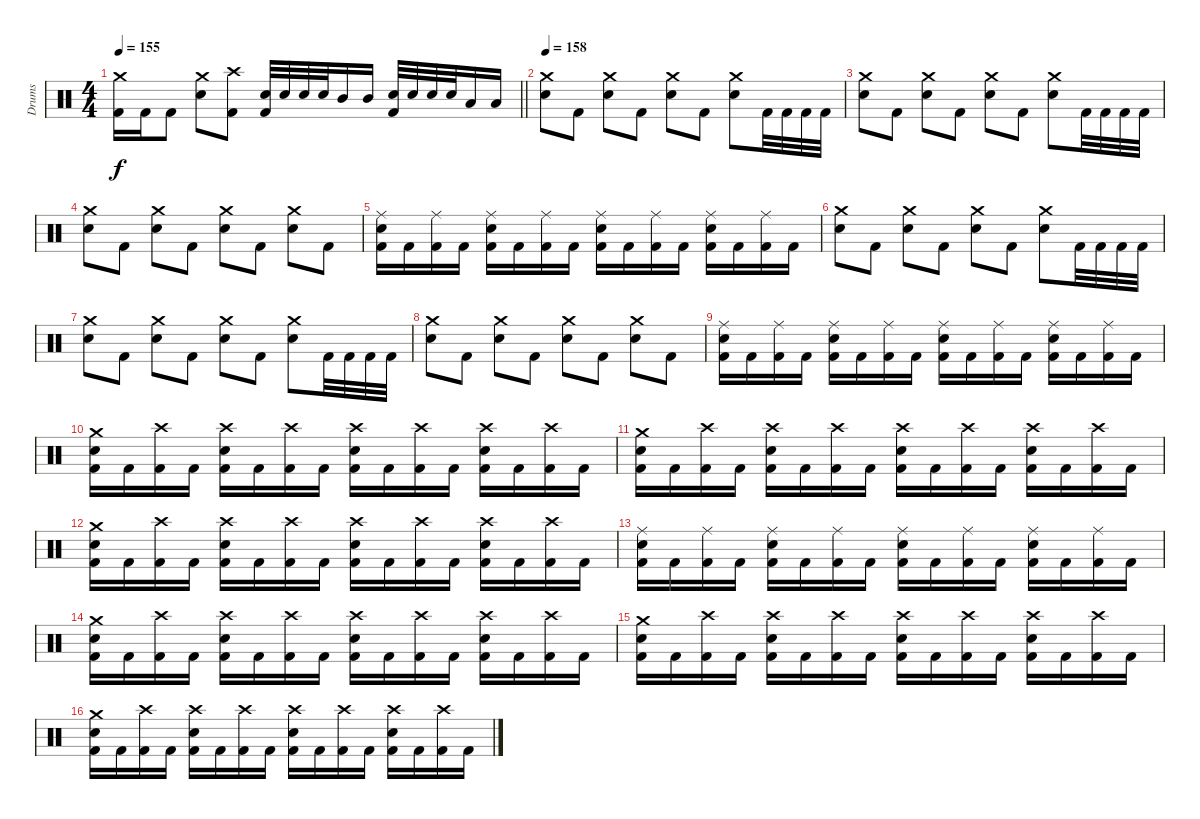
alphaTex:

\track ("Drums" "Drums") {instrument percussion}
\staff {score}
\articulation defaults
\ts (4 4)
\tempo 155
\clef neutral
\barLineRight lightlight
\ks c
("Crash medium (hit)" "Kick (hit) 2").16{dy f} "Kick (hit) 2".16 "Kick (hit) 2".8 ("Crash medium (hit)" "Snare (hit) 2").8 ("Crash high (hit)" "Kick (hit) 2").8 ("Snare (hit) 2" "Kick (hit) 2").32 "Snare (hit) 2".32 "Snare (hit) 2".32 "Snare (hit) 2".32 "Mid Tom (hit)".16 "Mid Tom (hit)".16 ("Snare (hit) 2" "Kick (hit) 2").32 "Snare (hit) 2".32 "Snare (hit) 2".32 "Snare (hit) 2".32 "Low Tom (hit)".16 "Low Tom (hit)".16 |
\section ("" "")
\tempo 158
("Crash medium (hit)" "Snare (hit) 2").8 "Kick (hit) 2".8 ("Crash medium (hit)" "Snare (hit) 2").8 "Kick (hit) 2".8 ("Crash medium (hit)" "Snare (hit) 2").8 "Kick (hit) 2".8 ("Crash medium (hit)" "Snare (hit) 2").8 "Kick (hit) 2".32 "Kick (hit) 2".32 "Kick (hit) 2".32 "Kick (hit) 2".32 |
("Crash medium (hit)" "Snare (hit) 2").8 "Kick (hit) 2".8 ("Crash medium (hit)" "Snare (hit) 2").8 "Kick (hit) 2".8 ("Crash medium (hit)" "Snare (hit) 2").8 "Kick (hit) 2".8 ("Crash medium (hit)" "Snare (hit) 2").8 "Kick (hit) 2".32 "Kick (hit) 2".32 "Kick (hit) 2".32 "Kick (hit) 2".32 |
("Crash medium (hit)" "Snare (hit) 2").8 "Kick (hit) 2".8 ("Crash medium (hit)" "Snare (hit) 2").8 "Kick (hit) 2".8 ("Crash medium (hit)" "Snare (hit) 2").8 "Kick (hit) 2".8 ("Crash medium (hit)" "Snare (hit) 2").8 "Kick (hit) 2".8 |
("Ride (middle)" "Snare (hit) 2" "Kick (hit) 2").16 "Kick (hit) 2".16 ("Ride (middle)" "Kick (hit) 2").16 "Kick (hit) 2".16 ("Ride (middle)" "Snare (hit) 2" "Kick (hit) 2").16 "Kick (hit) 2".16 ("Ride (middle)" "Kick (hit) 2").16 "Kick (hit) 2".16 ("Ride (middle)" "Snare (hit) 2" "Kick (hit) 2").16 "Kick (hit) 2".16 ("Ride (middle)" "Kick (hit) 2").16 "Kick (hit) 2".16 ("Ride (middle)" "Snare (hit) 2" "Kick (hit) 2").16 "Kick (hit) 2".16 ("Ride (middle)" "Kick (hit) 2").16 "Kick (hit) 2".16 |
("Crash medium (hit)" "Snare (hit) 2").8 "Kick (hit) 2".8 ("Crash medium (hit)" "Snare (hit) 2").8 "Kick (hit) 2".8 ("Crash medium (hit)" "Snare (hit) 2").8 "Kick (hit) 2".8 ("Crash medium (hit)" "Snare (hit) 2").8 "Kick (hit) 2".32 "Kick (hit) 2".32 "Kick (hit) 2".32 "Kick (hit) 2".32 |
("Crash medium (hit)" "Snare (hit) 2").8 "Kick (hit) 2".8 ("Crash medium (hit)" "Snare (hit) 2").8 "Kick (hit) 2".8 ("Crash medium (hit)" "Snare (hit) 2").8 "Kick (hit) 2".8 ("Crash medium (hit)" "Snare (hit) 2").8 "Kick (hit) 2".32 "Kick (hit) 2".32 "Kick (hit) 2".32 "Kick (hit) 2".32 |
("Crash medium (hit)" "Snare (hit) 2").8 "Kick (hit) 2".8 ("Crash medium (hit)" "Snare (hit) 2").8 "Kick (hit) 2".8 ("Crash medium (hit)" "Snare (hit) 2").8 "Kick (hit) 2".8 ("Crash medium (hit)" "Snare (hit) 2").8 "Kick (hit) 2".8 |
("Ride (middle)" "Snare (hit) 2" "Kick (hit) 2").16 "Kick (hit) 2".16 ("Ride (middle)" "Kick (hit) 2").16 "Kick (hit) 2".16 ("Ride (middle)" "Snare (hit) 2" "Kick (hit) 2").16 "Kick (hit) 2".16 ("Ride (middle)" "Kick (hit) 2").16 "Kick (hit) 2".16 ("Ride (middle)" "Snare (hit) 2" "Kick (hit) 2").16 "Kick (hit) 2".16 ("Ride (middle)" "Kick (hit) 2").16 "Kick (hit) 2".16 ("Ride (middle)" "Snare (hit) 2" "Kick (hit) 2").16 "Kick (hit) 2".16 ("Ride (middle)" "Kick (hit) 2").16 "Kick (hit) 2".16 |
("Crash medium (hit)" "Snare (hit) 2" "Kick (hit) 2").16 "Kick (hit) 2".16 ("Crash high (hit)" "Kick (hit) 2").16 "Kick (hit) 2".16 ("Crash high (hit)" "Snare (hit) 2" "Kick (hit) 2").16 "Kick (hit) 2".16 ("Crash high (hit)" "Kick (hit) 2").16 "Kick (hit) 2".16 ("Crash high (hit)" "Snare (hit) 2" "Kick (hit) 2").16 "Kick (hit) 2".16 ("Crash high (hit)" "Kick (hit) 2").16 "Kick (hit) 2".16 ("Crash high (hit)" "Snare (hit) 2" "Kick (hit) 2").16 "Kick (hit) 2".16 ("Crash high (hit)" "Kick (hit) 2").16 "Kick (hit) 2".16 |
("Crash medium (hit)" "Snare (hit) 2" "Kick (hit) 2").16 "Kick (hit) 2".16 ("Crash high (hit)" "Kick (hit) 2").16 "Kick (hit) 2".16 ("Crash high (hit)" "Snare (hit) 2" "Kick (hit) 2").16 "Kick (hit) 2".16 ("Crash high (hit)" "Kick (hit) 2").16 "Kick (hit) 2".16 ("Crash high (hit)" "Snare (hit) 2" "Kick (hit) 2").16 "Kick (hit) 2".16 ("Crash high (hit)" "Kick (hit) 2").16 "Kick (hit) 2".16 ("Crash high (hit)" "Snare (hit) 2" "Kick (hit) 2").16 "Kick (hit) 2".16 ("Crash high (hit)" "Kick (hit) 2").16 "Kick (hit) 2".16 |
("Crash medium (hit)" "Snare (hit) 2" "Kick (hit) 2").16 "Kick (hit) 2".16 ("Crash high (hit)" "Kick (hit) 2").16 "Kick (hit) 2".16 ("Crash high (hit)" "Snare (hit) 2" "Kick (hit) 2").16 "Kick (hit) 2".16 ("Crash high (hit)" "Kick (hit) 2").16 "Kick (hit) 2".16 ("Crash high (hit)" "Snare (hit) 2" "Kick (hit) 2").16 "Kick (hit) 2".16 ("Crash high (hit)" "Kick (hit) 2").16 "Kick (hit) 2".16 ("Crash high (hit)" "Snare (hit) 2" "Kick (hit) 2").16 "Kick (hit) 2".16 ("Crash high (hit)" "Kick (hit) 2").16 "Kick (hit) 2".16 |
("Ride (middle)" "Snare (hit) 2" "Kick (hit) 2").16 "Kick (hit) 2".16 ("Ride (middle)" "Kick (hit) 2").16 "Kick (hit) 2".16 ("Ride (middle)" "Snare (hit) 2" "Kick (hit) 2").16 "Kick (hit) 2".16 ("Ride (middle)" "Kick (hit) 2").16 "Kick (hit) 2".16 ("Ride (middle)" "Snare (hit) 2" "Kick (hit) 2").16 "Kick (hit) 2".16 ("Ride (middle)" "Kick (hit) 2").16 "Kick (hit) 2".16 ("Ride (middle)" "Snare (hit) 2" "Kick (hit) 2").16 "Kick (hit) 2".16 ("Ride (middle)" "Kick (hit) 2").16 "Kick (hit) 2".16 |
("Crash medium (hit)" "Snare (hit) 2" "Kick (hit) 2").16 "Kick (hit) 2".16 ("Crash high (hit)" "Kick (hit) 2").16 "Kick (hit) 2".16 ("Crash high (hit)" "Snare (hit) 2" "Kick (hit) 2").16 "Kick (hit) 2".16 ("Crash high (hit)" "Kick (hit) 2").16 "Kick (hit) 2".16 ("Crash high (hit)" "Snare (hit) 2" "Kick (hit) 2").16 "Kick (hit) 2".16 ("Crash high (hit)" "Kick (hit) 2").16 "Kick (hit) 2".16 ("Crash high (hit)" "Snare (hit) 2" "Kick (hit) 2").16 "Kick (hit) 2".16 ("Crash high (hit)" "Kick (hit) 2").16 "Kick (hit) 2".16 |
("Crash medium (hit)" "Snare (hit) 2" "Kick (hit) 2").16 "Kick (hit) 2".16 ("Crash high (hit)" "Kick (hit) 2").16 "Kick (hit) 2".16 ("Crash high (hit)" "Snare (hit) 2" "Kick (hit) 2").16 "Kick (hit) 2".16 ("Crash high (hit)" "Kick (hit) 2").16 "Kick (hit) 2".16 ("Crash high (hit)" "Snare (hit) 2" "Kick (hit) 2").16 "Kick (hit) 2".16 ("Crash high (hit)" "Kick (hit) 2").16 "Kick (hit) 2".16 ("Crash high (hit)" "Snare (hit) 2" "Kick (hit) 2").16 "Kick (hit) 2".16 ("Crash high (hit)" "Kick (hit) 2").16 "Kick (hit) 2".16 |
("Crash medium (hit)" "Snare (hit) 2" "Kick (hit) 2").16 "Kick (hit) 2".16 ("Crash high (hit)" "Kick (hit) 2").16 "Kick (hit) 2".16 ("Crash high (hit)" "Snare (hit) 2" "Kick (hit) 2").16 "Kick (hit) 2".16 ("Crash high (hit)" "Kick (hit) 2").16 "Kick (hit) 2".16 ("Crash high (hit)" "Snare (hit) 2" "Kick (hit) 2").16 "Kick (hit) 2".16 ("Crash high (hit)" "Kick (hit) 2").16 "Kick (hit) 2".16 ("Crash high (hit)" "Snare (hit) 2" "Kick (hit) 2").16 "Kick (hit) 2".16 ("Crash high (hit)" "Kick (hit) 2").16 "Kick (hit) 2".16
